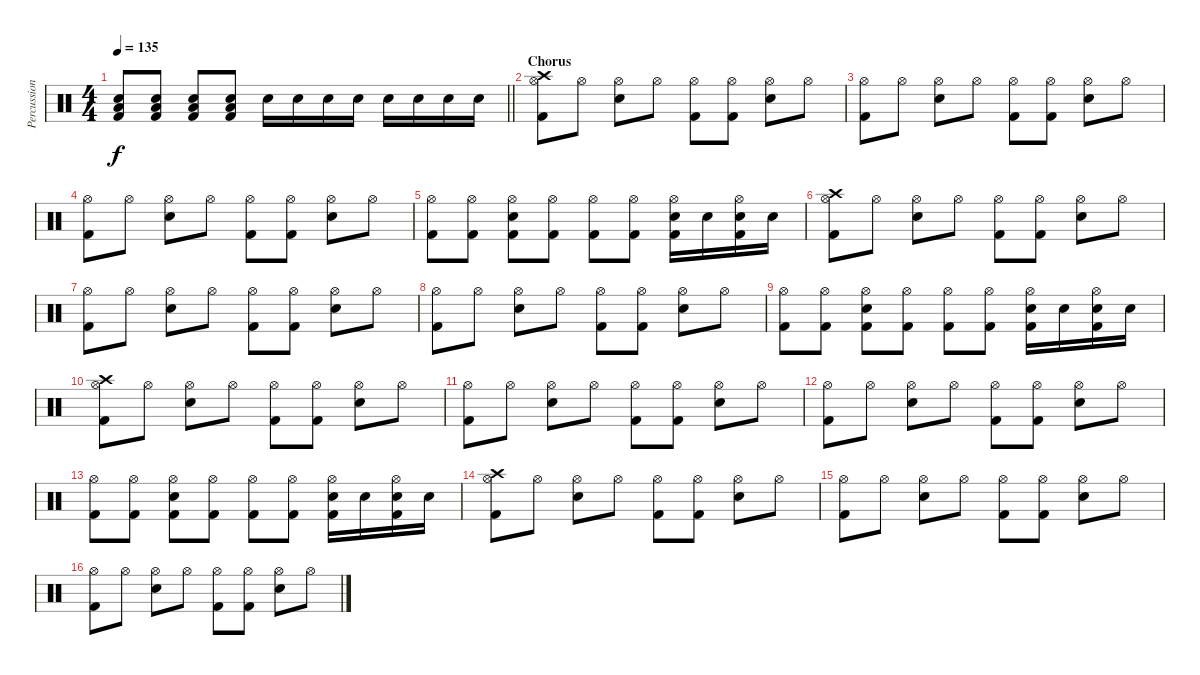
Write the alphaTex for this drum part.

\track ("Percussion" "Percussion") {instrument percussion}
\staff {score}
\articulation defaults
\ts (4 4)
\tempo 135
\clef neutral
\barLineRight lightlight
\ks c
("Low Floor Tom (hit)" "Electric Snare (hit)" "Kick (hit) 2").8{dy f} ("Low Floor Tom (hit)" "Electric Snare (hit)" "Kick (hit) 2").8 ("Low Floor Tom (hit)" "Electric Snare (hit)" "Kick (hit) 2").8 ("Low Floor Tom (hit)" "Electric Snare (hit)" "Kick (hit) 2").8 "Electric Snare (hit)".16 "Electric Snare (hit)".16 "Electric Snare (hit)".16 "Electric Snare (hit)".16 "Electric Snare (hit)".16 "Electric Snare (hit)".16 "Electric Snare (hit)".16 "Electric Snare (hit)".16 |
\section ("" "Chorus")
("Crash high (hit)" "Hi-Hat (open)" "Kick (hit) 2").8 "Hi-Hat (open)".8 ("Hi-Hat (open)" "Electric Snare (hit)").8 "Hi-Hat (open)".8 ("Hi-Hat (open)" "Kick (hit) 2").8 ("Hi-Hat (open)" "Kick (hit) 2").8 ("Hi-Hat (open)" "Electric Snare (hit)").8 "Hi-Hat (open)".8 |
("Hi-Hat (open)" "Kick (hit) 2").8 "Hi-Hat (open)".8 ("Hi-Hat (open)" "Electric Snare (hit)").8 "Hi-Hat (open)".8 ("Hi-Hat (open)" "Kick (hit) 2").8 ("Hi-Hat (open)" "Kick (hit) 2").8 ("Hi-Hat (open)" "Electric Snare (hit)").8 "Hi-Hat (open)".8 |
("Hi-Hat (open)" "Kick (hit) 2").8 "Hi-Hat (open)".8 ("Hi-Hat (open)" "Electric Snare (hit)").8 "Hi-Hat (open)".8 ("Hi-Hat (open)" "Kick (hit) 2").8 ("Hi-Hat (open)" "Kick (hit) 2").8 ("Hi-Hat (open)" "Electric Snare (hit)").8 "Hi-Hat (open)".8 |
("Kick (hit) 2" "Hi-Hat (open)").8 ("Kick (hit) 2" "Hi-Hat (open)").8 ("Kick (hit) 2" "Electric Snare (hit)" "Hi-Hat (open)").8 ("Kick (hit) 2" "Hi-Hat (open)").8 ("Kick (hit) 2" "Hi-Hat (open)").8 ("Kick (hit) 2" "Hi-Hat (open)").8 ("Kick (hit) 2" "Electric Snare (hit)" "Hi-Hat (open)").16 "Electric Snare (hit)".16 ("Kick (hit) 2" "Electric Snare (hit)" "Hi-Hat (open)").16 "Electric Snare (hit)".16 |
("Crash high (hit)" "Hi-Hat (open)" "Kick (hit) 2").8 "Hi-Hat (open)".8 ("Hi-Hat (open)" "Electric Snare (hit)").8 "Hi-Hat (open)".8 ("Hi-Hat (open)" "Kick (hit) 2").8 ("Hi-Hat (open)" "Kick (hit) 2").8 ("Hi-Hat (open)" "Electric Snare (hit)").8 "Hi-Hat (open)".8 |
("Hi-Hat (open)" "Kick (hit) 2").8 "Hi-Hat (open)".8 ("Hi-Hat (open)" "Electric Snare (hit)").8 "Hi-Hat (open)".8 ("Hi-Hat (open)" "Kick (hit) 2").8 ("Hi-Hat (open)" "Kick (hit) 2").8 ("Hi-Hat (open)" "Electric Snare (hit)").8 "Hi-Hat (open)".8 |
("Hi-Hat (open)" "Kick (hit) 2").8 "Hi-Hat (open)".8 ("Hi-Hat (open)" "Electric Snare (hit)").8 "Hi-Hat (open)".8 ("Hi-Hat (open)" "Kick (hit) 2").8 ("Hi-Hat (open)" "Kick (hit) 2").8 ("Hi-Hat (open)" "Electric Snare (hit)").8 "Hi-Hat (open)".8 |
("Kick (hit) 2" "Hi-Hat (open)").8 ("Kick (hit) 2" "Hi-Hat (open)").8 ("Kick (hit) 2" "Electric Snare (hit)" "Hi-Hat (open)").8 ("Kick (hit) 2" "Hi-Hat (open)").8 ("Kick (hit) 2" "Hi-Hat (open)").8 ("Kick (hit) 2" "Hi-Hat (open)").8 ("Kick (hit) 2" "Electric Snare (hit)" "Hi-Hat (open)").16 "Electric Snare (hit)".16 ("Kick (hit) 2" "Electric Snare (hit)" "Hi-Hat (open)").16 "Electric Snare (hit)".16 |
("Crash high (hit)" "Hi-Hat (open)" "Kick (hit) 2").8 "Hi-Hat (open)".8 ("Hi-Hat (open)" "Electric Snare (hit)").8 "Hi-Hat (open)".8 ("Hi-Hat (open)" "Kick (hit) 2").8 ("Hi-Hat (open)" "Kick (hit) 2").8 ("Hi-Hat (open)" "Electric Snare (hit)").8 "Hi-Hat (open)".8 |
("Hi-Hat (open)" "Kick (hit) 2").8 "Hi-Hat (open)".8 ("Hi-Hat (open)" "Electric Snare (hit)").8 "Hi-Hat (open)".8 ("Hi-Hat (open)" "Kick (hit) 2").8 ("Hi-Hat (open)" "Kick (hit) 2").8 ("Hi-Hat (open)" "Electric Snare (hit)").8 "Hi-Hat (open)".8 |
("Hi-Hat (open)" "Kick (hit) 2").8 "Hi-Hat (open)".8 ("Hi-Hat (open)" "Electric Snare (hit)").8 "Hi-Hat (open)".8 ("Hi-Hat (open)" "Kick (hit) 2").8 ("Hi-Hat (open)" "Kick (hit) 2").8 ("Hi-Hat (open)" "Electric Snare (hit)").8 "Hi-Hat (open)".8 |
("Kick (hit) 2" "Hi-Hat (open)").8 ("Kick (hit) 2" "Hi-Hat (open)").8 ("Kick (hit) 2" "Electric Snare (hit)" "Hi-Hat (open)").8 ("Kick (hit) 2" "Hi-Hat (open)").8 ("Kick (hit) 2" "Hi-Hat (open)").8 ("Kick (hit) 2" "Hi-Hat (open)").8 ("Kick (hit) 2" "Electric Snare (hit)" "Hi-Hat (open)").16 "Electric Snare (hit)".16 ("Kick (hit) 2" "Electric Snare (hit)" "Hi-Hat (open)").16 "Electric Snare (hit)".16 |
("Crash high (hit)" "Hi-Hat (open)" "Kick (hit) 2").8 "Hi-Hat (open)".8 ("Hi-Hat (open)" "Electric Snare (hit)").8 "Hi-Hat (open)".8 ("Hi-Hat (open)" "Kick (hit) 2").8 ("Hi-Hat (open)" "Kick (hit) 2").8 ("Hi-Hat (open)" "Electric Snare (hit)").8 "Hi-Hat (open)".8 |
("Hi-Hat (open)" "Kick (hit) 2").8 "Hi-Hat (open)".8 ("Hi-Hat (open)" "Electric Snare (hit)").8 "Hi-Hat (open)".8 ("Hi-Hat (open)" "Kick (hit) 2").8 ("Hi-Hat (open)" "Kick (hit) 2").8 ("Hi-Hat (open)" "Electric Snare (hit)").8 "Hi-Hat (open)".8 |
("Hi-Hat (open)" "Kick (hit) 2").8 "Hi-Hat (open)".8 ("Hi-Hat (open)" "Electric Snare (hit)").8 "Hi-Hat (open)".8 ("Hi-Hat (open)" "Kick (hit) 2").8 ("Hi-Hat (open)" "Kick (hit) 2").8 ("Hi-Hat (open)" "Electric Snare (hit)").8 "Hi-Hat (open)".8
